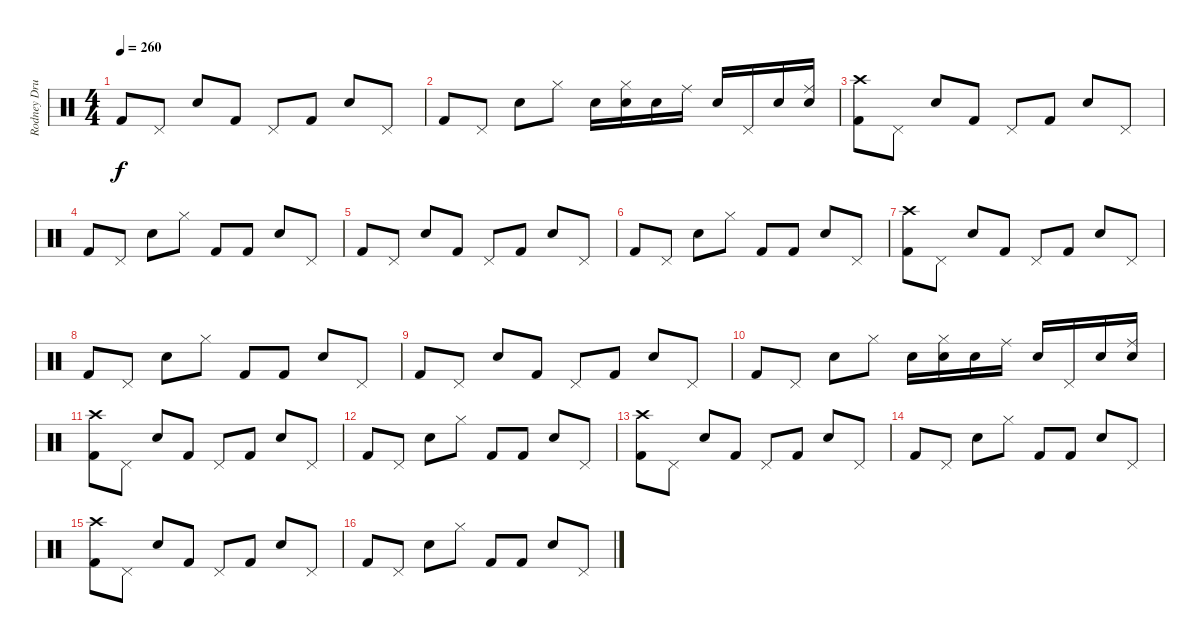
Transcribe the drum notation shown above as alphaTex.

\track ("Rodney Drums" "Rodney Dru") {instrument percussion}
\staff {score}
\articulation defaults
\ts (4 4)
\tempo 260
\clef neutral
\ks c "Kick (hit) 2".8{dy f} "Pedal Hi-Hat (hit)".8 "Electric Snare (hit)".8 "Kick (hit) 2".8 "Pedal Hi-Hat (hit)".8 "Kick (hit) 2".8 "Electric Snare (hit)".8 "Pedal Hi-Hat (hit)".8
|
"Kick (hit) 2".8 "Pedal Hi-Hat (hit)".8 "Electric Snare (hit)".8 "Hi-Hat (closed)".8 "Electric Snare (hit)".16 ("Hi-Hat (closed)" "Electric Snare (hit)").16 "Electric Snare (hit)".16 "Ride (middle)".16 "Electric Snare (hit)".16 "Pedal Hi-Hat (hit)".16 "Electric Snare (hit)".16 ("Electric Snare (hit)" "Ride (middle)").16 |
("Crash high (hit)" "Kick (hit) 2").8 "Pedal Hi-Hat (hit)".8 "Electric Snare (hit)".8 "Kick (hit) 2".8 "Pedal Hi-Hat (hit)".8 "Kick (hit) 2".8 "Electric Snare (hit)".8 "Pedal Hi-Hat (hit)".8 |
"Kick (hit) 2".8 "Pedal Hi-Hat (hit)".8 "Electric Snare (hit)".8 "Hi-Hat (closed)".8 "Kick (hit) 2".8 "Kick (hit) 2".8 "Electric Snare (hit)".8 "Pedal Hi-Hat (hit)".8 |
"Kick (hit) 2".8 "Pedal Hi-Hat (hit)".8 "Electric Snare (hit)".8 "Kick (hit) 2".8 "Pedal Hi-Hat (hit)".8 "Kick (hit) 2".8 "Electric Snare (hit)".8 "Pedal Hi-Hat (hit)".8 |
"Kick (hit) 2".8 "Pedal Hi-Hat (hit)".8 "Electric Snare (hit)".8 "Hi-Hat (closed)".8 "Kick (hit) 2".8 "Kick (hit) 2".8 "Electric Snare (hit)".8 "Pedal Hi-Hat (hit)".8 |
("Crash high (hit)" "Kick (hit) 2").8 "Pedal Hi-Hat (hit)".8 "Electric Snare (hit)".8 "Kick (hit) 2".8 "Pedal Hi-Hat (hit)".8 "Kick (hit) 2".8 "Electric Snare (hit)".8 "Pedal Hi-Hat (hit)".8 |
"Kick (hit) 2".8 "Pedal Hi-Hat (hit)".8 "Electric Snare (hit)".8 "Hi-Hat (closed)".8 "Kick (hit) 2".8 "Kick (hit) 2".8 "Electric Snare (hit)".8 "Pedal Hi-Hat (hit)".8 |
"Kick (hit) 2".8 "Pedal Hi-Hat (hit)".8 "Electric Snare (hit)".8 "Kick (hit) 2".8 "Pedal Hi-Hat (hit)".8 "Kick (hit) 2".8 "Electric Snare (hit)".8 "Pedal Hi-Hat (hit)".8 |
"Kick (hit) 2".8 "Pedal Hi-Hat (hit)".8 "Electric Snare (hit)".8 "Hi-Hat (closed)".8 "Electric Snare (hit)".16 ("Hi-Hat (closed)" "Electric Snare (hit)").16 "Electric Snare (hit)".16 "Ride (middle)".16 "Electric Snare (hit)".16 "Pedal Hi-Hat (hit)".16 "Electric Snare (hit)".16 ("Electric Snare (hit)" "Ride (middle)").16 |
("Crash high (hit)" "Kick (hit) 2").8 "Pedal Hi-Hat (hit)".8 "Electric Snare (hit)".8 "Kick (hit) 2".8 "Pedal Hi-Hat (hit)".8 "Kick (hit) 2".8 "Electric Snare (hit)".8 "Pedal Hi-Hat (hit)".8 |
"Kick (hit) 2".8 "Pedal Hi-Hat (hit)".8 "Electric Snare (hit)".8 "Hi-Hat (closed)".8 "Kick (hit) 2".8 "Kick (hit) 2".8 "Electric Snare (hit)".8 "Pedal Hi-Hat (hit)".8 |
("Crash high (hit)" "Kick (hit) 2").8 "Pedal Hi-Hat (hit)".8 "Electric Snare (hit)".8 "Kick (hit) 2".8 "Pedal Hi-Hat (hit)".8 "Kick (hit) 2".8 "Electric Snare (hit)".8 "Pedal Hi-Hat (hit)".8 |
"Kick (hit) 2".8 "Pedal Hi-Hat (hit)".8 "Electric Snare (hit)".8 "Hi-Hat (closed)".8 "Kick (hit) 2".8 "Kick (hit) 2".8 "Electric Snare (hit)".8 "Pedal Hi-Hat (hit)".8 |
("Crash high (hit)" "Kick (hit) 2").8 "Pedal Hi-Hat (hit)".8 "Electric Snare (hit)".8 "Kick (hit) 2".8 "Pedal Hi-Hat (hit)".8 "Kick (hit) 2".8 "Electric Snare (hit)".8 "Pedal Hi-Hat (hit)".8 |
"Kick (hit) 2".8 "Pedal Hi-Hat (hit)".8 "Electric Snare (hit)".8 "Hi-Hat (closed)".8 "Kick (hit) 2".8 "Kick (hit) 2".8 "Electric Snare (hit)".8 "Pedal Hi-Hat (hit)".8
